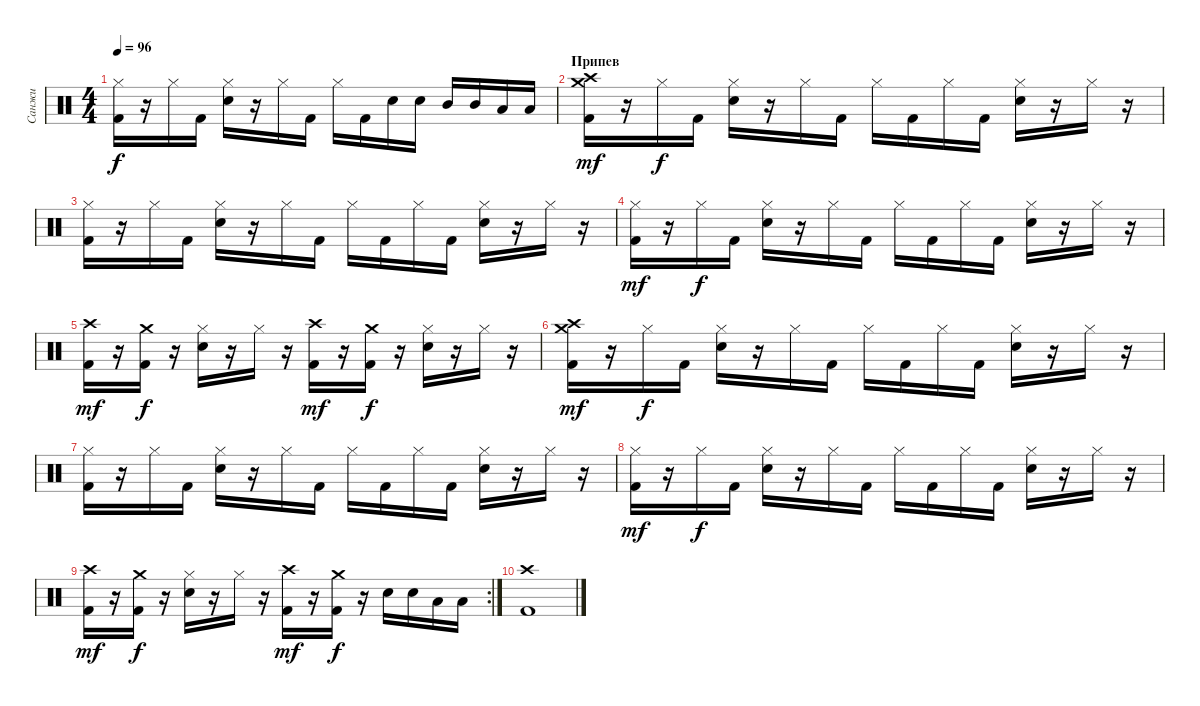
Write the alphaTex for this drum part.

\track ("Санжи" "Санжи") {instrument percussion}
\staff {score}
\articulation defaults
\ts (4 4)
\tempo 96
\clef neutral
\ks c
("Hi-Hat (closed)" "Kick (hit) 2").16{dy f} r.16 "Hi-Hat (closed)".16 "Kick (hit) 2".16 ("Hi-Hat (closed)" "Snare (hit) 2").16 r.16 "Hi-Hat (closed)".16 "Kick (hit) 2".16 "Hi-Hat (closed)".16 "Kick (hit) 2".16 "Snare (hit) 2".16 "Snare (hit) 2".16 "Mid Tom (hit)".16 "Mid Tom (hit)".16 "Low Tom (hit)".16 "Low Tom (hit)".16 |
\section ("" "Припев")
("Crash high (hit)" "Crash medium (hit)" "Kick (hit) 2").16{dy mf} r.16 "Hi-Hat (closed)".16{dy f} "Kick (hit) 2".16 ("Hi-Hat (closed)" "Snare (hit) 2").16 r.16 "Hi-Hat (closed)".16 "Kick (hit) 2".16 "Hi-Hat (closed)".16 "Kick (hit) 2".16 "Hi-Hat (closed)".16 "Kick (hit) 2".16 ("Hi-Hat (closed)" "Snare (hit) 2").16 r.16 "Hi-Hat (closed)".16 r.16 |
("Hi-Hat (closed)" "Kick (hit) 2").16 r.16 "Hi-Hat (closed)".16 "Kick (hit) 2".16 ("Hi-Hat (closed)" "Snare (hit) 2").16 r.16 "Hi-Hat (closed)".16 "Kick (hit) 2".16 "Hi-Hat (closed)".16 "Kick (hit) 2".16 "Hi-Hat (closed)".16 "Kick (hit) 2".16 ("Hi-Hat (closed)" "Snare (hit) 2").16 r.16 "Hi-Hat (closed)".16 r.16 |
("Hi-Hat (closed)" "Kick (hit) 2").16{dy mf} r.16 "Hi-Hat (closed)".16{dy f} "Kick (hit) 2".16 ("Hi-Hat (closed)" "Snare (hit) 2").16 r.16 "Hi-Hat (closed)".16 "Kick (hit) 2".16 "Hi-Hat (closed)".16 "Kick (hit) 2".16 "Hi-Hat (closed)".16 "Kick (hit) 2".16 ("Hi-Hat (closed)" "Snare (hit) 2").16 r.16 "Hi-Hat (closed)".16 r.16 |
("Crash high (hit)" "Kick (hit) 2").16{dy mf} r.16 ("Crash medium (hit)" "Kick (hit) 2").16{dy f} r.16 ("Hi-Hat (closed)" "Snare (hit) 2").16 r.16 "Hi-Hat (closed)".16 r.16 ("Crash high (hit)" "Kick (hit) 2").16{dy mf} r.16 ("Crash medium (hit)" "Kick (hit) 2").16{dy f} r.16 ("Hi-Hat (closed)" "Snare (hit) 2").16 r.16 "Hi-Hat (closed)".16 r.16 |
("Crash high (hit)" "Crash medium (hit)" "Kick (hit) 2").16{dy mf} r.16 "Hi-Hat (closed)".16{dy f} "Kick (hit) 2".16 ("Hi-Hat (closed)" "Snare (hit) 2").16 r.16 "Hi-Hat (closed)".16 "Kick (hit) 2".16 "Hi-Hat (closed)".16 "Kick (hit) 2".16 "Hi-Hat (closed)".16 "Kick (hit) 2".16 ("Hi-Hat (closed)" "Snare (hit) 2").16 r.16 "Hi-Hat (closed)".16 r.16 |
("Hi-Hat (closed)" "Kick (hit) 2").16 r.16 "Hi-Hat (closed)".16 "Kick (hit) 2".16 ("Hi-Hat (closed)" "Snare (hit) 2").16 r.16 "Hi-Hat (closed)".16 "Kick (hit) 2".16 "Hi-Hat (closed)".16 "Kick (hit) 2".16 "Hi-Hat (closed)".16 "Kick (hit) 2".16 ("Hi-Hat (closed)" "Snare (hit) 2").16 r.16 "Hi-Hat (closed)".16 r.16 |
("Hi-Hat (closed)" "Kick (hit) 2").16{dy mf} r.16 "Hi-Hat (closed)".16{dy f} "Kick (hit) 2".16 ("Hi-Hat (closed)" "Snare (hit) 2").16 r.16 "Hi-Hat (closed)".16 "Kick (hit) 2".16 "Hi-Hat (closed)".16 "Kick (hit) 2".16 "Hi-Hat (closed)".16 "Kick (hit) 2".16 ("Hi-Hat (closed)" "Snare (hit) 2").16 r.16 "Hi-Hat (closed)".16 r.16 |
\rc 2
("Crash high (hit)" "Kick (hit) 2").16{dy mf} r.16 ("Crash medium (hit)" "Kick (hit) 2").16{dy f} r.16 ("Hi-Hat (closed)" "Snare (hit) 2").16 r.16 "Hi-Hat (closed)".16 r.16 ("Crash high (hit)" "Kick (hit) 2").16{dy mf} r.16 ("Crash medium (hit)" "Kick (hit) 2").16{dy f} r.16 "Snare (hit) 2".16 "Snare (hit) 2".16 "Low Tom (hit)".16 "Low Tom (hit)".16 |
("Kick (hit) 2" "Crash high (hit)").1
